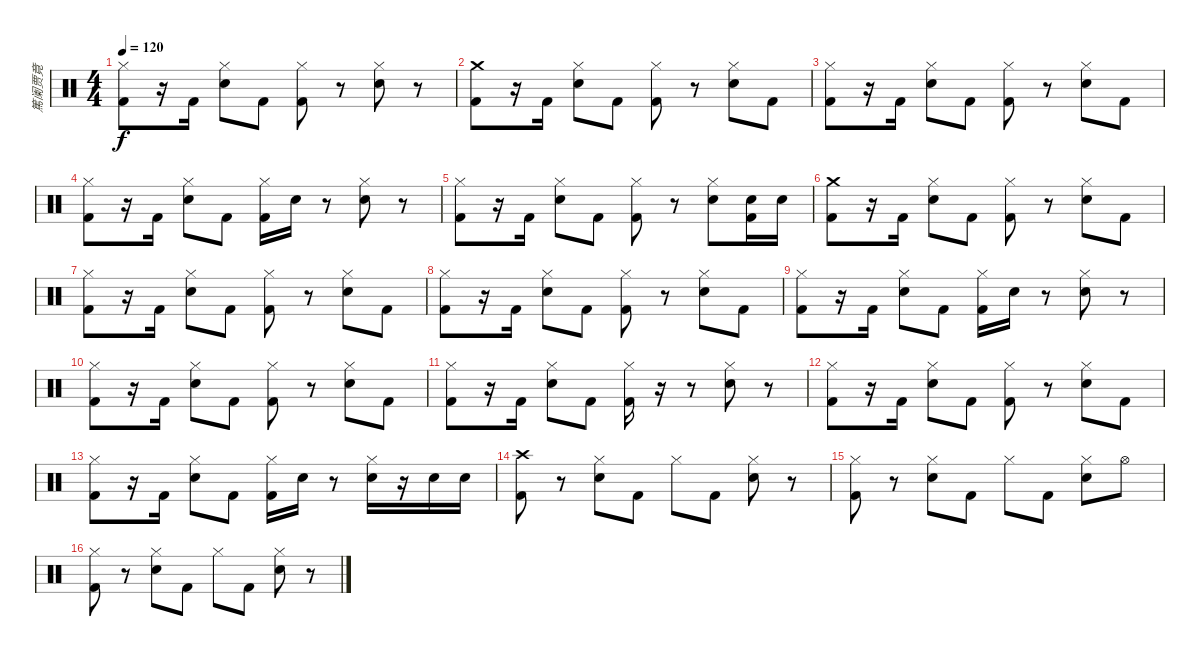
\track ("篤阑贾竟" "篤阑贾竟") {instrument percussion}
\staff {score}
\articulation defaults
\ts (4 4)
\tempo 120
\clef neutral
\ks c
("Hi-Hat (closed)" "Kick (hit) 2").8{dy f} r.16 "Kick (hit) 2".16 ("Hi-Hat (closed)" "Electric Snare (hit)").8 "Kick (hit) 2".8 ("Hi-Hat (closed)" "Kick (hit) 2").8 r.8 ("Hi-Hat (closed)" "Electric Snare (hit)").8 r.8 |
("Crash medium (hit)" "Kick (hit) 2").8 r.16 "Kick (hit) 2".16 ("Hi-Hat (closed)" "Electric Snare (hit)").8 "Kick (hit) 2".8 ("Hi-Hat (closed)" "Kick (hit) 2").8 r.8 ("Hi-Hat (closed)" "Electric Snare (hit)").8 "Kick (hit) 2".8 |
("Hi-Hat (closed)" "Kick (hit) 2").8 r.16 "Kick (hit) 2".16 ("Hi-Hat (closed)" "Electric Snare (hit)").8 "Kick (hit) 2".8 ("Hi-Hat (closed)" "Kick (hit) 2").8 r.8 ("Hi-Hat (closed)" "Electric Snare (hit)").8 "Kick (hit) 2".8 |
("Hi-Hat (closed)" "Kick (hit) 2").8 r.16 "Kick (hit) 2".16 ("Hi-Hat (closed)" "Electric Snare (hit)").8 "Kick (hit) 2".8 ("Hi-Hat (closed)" "Kick (hit) 2").16 "Electric Snare (hit)".16 r.8 ("Hi-Hat (closed)" "Electric Snare (hit)").8 r.8 |
("Hi-Hat (closed)" "Kick (hit) 2").8 r.16 "Kick (hit) 2".16 ("Hi-Hat (closed)" "Electric Snare (hit)").8 "Kick (hit) 2".8 ("Hi-Hat (closed)" "Kick (hit) 2").8 r.8 ("Hi-Hat (closed)" "Electric Snare (hit)").8 ("Electric Snare (hit)" "Kick (hit) 2").16 "Electric Snare (hit)".16 |
("Crash medium (hit)" "Kick (hit) 2").8 r.16 "Kick (hit) 2".16 ("Hi-Hat (closed)" "Electric Snare (hit)").8 "Kick (hit) 2".8 ("Hi-Hat (closed)" "Kick (hit) 2").8 r.8 ("Hi-Hat (closed)" "Electric Snare (hit)").8 "Kick (hit) 2".8 |
("Hi-Hat (closed)" "Kick (hit) 2").8 r.16 "Kick (hit) 2".16 ("Hi-Hat (closed)" "Electric Snare (hit)").8 "Kick (hit) 2".8 ("Hi-Hat (closed)" "Kick (hit) 2").8 r.8 ("Hi-Hat (closed)" "Electric Snare (hit)").8 "Kick (hit) 2".8 |
("Hi-Hat (closed)" "Kick (hit) 2").8 r.16 "Kick (hit) 2".16 ("Hi-Hat (closed)" "Electric Snare (hit)").8 "Kick (hit) 2".8 ("Hi-Hat (closed)" "Kick (hit) 2").8 r.8 ("Hi-Hat (closed)" "Electric Snare (hit)").8 "Kick (hit) 2".8 |
("Hi-Hat (closed)" "Kick (hit) 2").8 r.16 "Kick (hit) 2".16 ("Hi-Hat (closed)" "Electric Snare (hit)").8 "Kick (hit) 2".8 ("Hi-Hat (closed)" "Kick (hit) 2").16 "Electric Snare (hit)".16 r.8 ("Hi-Hat (closed)" "Electric Snare (hit)").8 r.8 |
("Hi-Hat (closed)" "Kick (hit) 2").8 r.16 "Kick (hit) 2".16 ("Hi-Hat (closed)" "Electric Snare (hit)").8 "Kick (hit) 2".8 ("Hi-Hat (closed)" "Kick (hit) 2").8 r.8 ("Hi-Hat (closed)" "Electric Snare (hit)").8 "Kick (hit) 2".8 |
("Hi-Hat (closed)" "Kick (hit) 2").8 r.16 "Kick (hit) 2".16 ("Hi-Hat (closed)" "Electric Snare (hit)").8 "Kick (hit) 2".8 ("Hi-Hat (closed)" "Kick (hit) 2").16 r.16 r.8 ("Hi-Hat (closed)" "Electric Snare (hit)").8 r.8 |
("Hi-Hat (closed)" "Kick (hit) 2").8 r.16 "Kick (hit) 2".16 ("Hi-Hat (closed)" "Electric Snare (hit)").8 "Kick (hit) 2".8 ("Hi-Hat (closed)" "Kick (hit) 2").8 r.8 ("Hi-Hat (closed)" "Electric Snare (hit)").8 "Kick (hit) 2".8 |
("Hi-Hat (closed)" "Kick (hit) 2").8 r.16 "Kick (hit) 2".16 ("Hi-Hat (closed)" "Electric Snare (hit)").8 "Kick (hit) 2".8 ("Hi-Hat (closed)" "Kick (hit) 2").16 "Electric Snare (hit)".16 r.8 ("Hi-Hat (closed)" "Electric Snare (hit)").16 r.16 "Electric Snare (hit)".16 "Electric Snare (hit)".16 |
("Crash high (hit)" "Kick (hit) 2").8 r.8 ("Hi-Hat (closed)" "Electric Snare (hit)").8 "Kick (hit) 2".8 "Hi-Hat (closed)".8 "Kick (hit) 2".8 ("Hi-Hat (closed)" "Electric Snare (hit)").8 r.8 |
("Hi-Hat (closed)" "Kick (hit) 2").8 r.8 ("Hi-Hat (closed)" "Electric Snare (hit)").8 "Kick (hit) 2".8 "Hi-Hat (closed)".8 "Kick (hit) 2".8 ("Hi-Hat (closed)" "Electric Snare (hit)").8 "Hi-Hat (open)".8 |
("Hi-Hat (closed)" "Kick (hit) 2").8 r.8 ("Hi-Hat (closed)" "Electric Snare (hit)").8 "Kick (hit) 2".8 "Hi-Hat (closed)".8 "Kick (hit) 2".8 ("Hi-Hat (closed)" "Electric Snare (hit)").8 r.8
